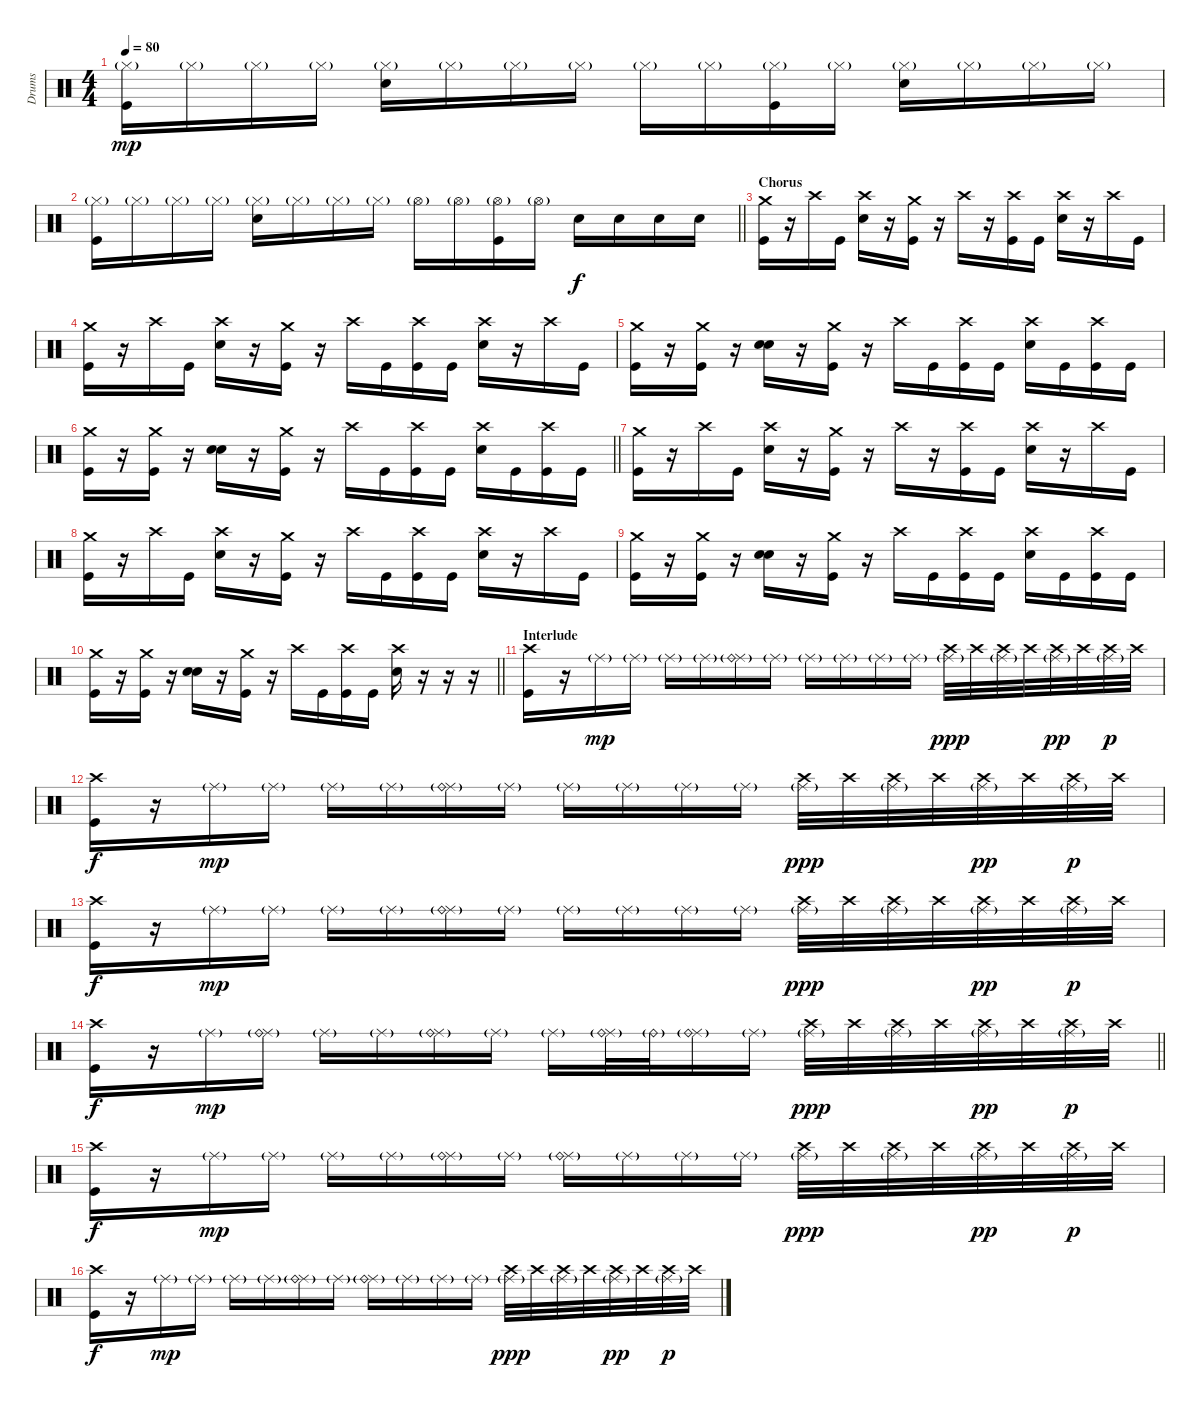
\track ("Drums" "Drums") {instrument percussion}
\staff {score}
\articulation defaults
\ts (4 4)
\tempo 80
\clef neutral
\ks c
("Hi-Hat (closed)"{g} "Kick (hit)").16{dy mp} "Hi-Hat (closed)"{g}.16 "Hi-Hat (closed)"{g}.16 "Hi-Hat (closed)"{g}.16 ("Hi-Hat (closed)"{g} "Snare (hit) 2").16 "Hi-Hat (closed)"{g}.16 "Hi-Hat (closed)"{g}.16 "Hi-Hat (closed)"{g}.16 "Hi-Hat (closed)"{g}.16 "Hi-Hat (closed)"{g}.16 ("Hi-Hat (closed)"{g} "Kick (hit)").16 "Hi-Hat (closed)"{g}.16 ("Hi-Hat (closed)"{g} "Snare (hit) 2").16 "Hi-Hat (closed)"{g}.16 "Hi-Hat (closed)"{g}.16 "Hi-Hat (closed)"{g}.16 |
\barLineRight lightlight
("Hi-Hat (closed)"{g} "Kick (hit)").16 "Hi-Hat (closed)"{g}.16 "Hi-Hat (closed)"{g}.16 "Hi-Hat (closed)"{g}.16 ("Hi-Hat (closed)"{g} "Snare (hit) 2").16 "Hi-Hat (closed)"{g}.16 "Hi-Hat (closed)"{g}.16 "Hi-Hat (closed)"{g}.16 "Hi-Hat (open)"{g}.16 "Hi-Hat (open)"{g}.16 ("Hi-Hat (open)"{g} "Kick (hit)").16 "Hi-Hat (open)"{g}.16 "Snare (hit) 2".16{dy f} "Snare (hit) 2".16 "Snare (hit) 2".16 "Snare (hit) 2".16 |
\section ("" "Chorus")
("Crash medium (hit)" "Kick (hit)").16 r.16 "Crash high (hit)".16 "Kick (hit)".16 ("Crash high (hit)" "Snare (hit) 2").16 r.16 ("Crash medium (hit)" "Kick (hit)").16 r.16 "Crash high (hit)".16 r.16 ("Crash high (hit)" "Kick (hit)").16 "Kick (hit)".16 ("Crash high (hit)" "Snare (hit) 2").16 r.16 "Crash high (hit)".16 "Kick (hit)".16 |
("Crash medium (hit)" "Kick (hit)").16 r.16 "Crash high (hit)".16 "Kick (hit)".16 ("Crash high (hit)" "Snare (hit) 2").16 r.16 ("Crash medium (hit)" "Kick (hit)").16 r.16 "Crash high (hit)".16 "Kick (hit)".16 ("Crash high (hit)" "Kick (hit)").16 "Kick (hit)".16 ("Crash high (hit)" "Snare (hit) 2").16 r.16 "Crash high (hit)".16 "Kick (hit)".16 |
("Crash medium (hit)" "Kick (hit)").16 r.16 ("Crash medium (hit)" "Kick (hit)").16 r.16 ("Snare (hit) 2" "Snare (hit) 2").16 r.16 ("Crash medium (hit)" "Kick (hit)").16 r.16 "Crash high (hit)".16 "Kick (hit)".16 ("Crash high (hit)" "Kick (hit)").16 "Kick (hit)".16 ("Crash high (hit)" "Snare (hit) 2").16 "Kick (hit)".16 ("Crash high (hit)" "Kick (hit)").16 "Kick (hit)".16 |
\barLineRight lightlight
("Crash medium (hit)" "Kick (hit)").16 r.16 ("Crash medium (hit)" "Kick (hit)").16 r.16 ("Snare (hit) 2" "Snare (hit) 2").16 r.16 ("Crash medium (hit)" "Kick (hit)").16 r.16 "Crash high (hit)".16 "Kick (hit)".16 ("Crash high (hit)" "Kick (hit)").16 "Kick (hit)".16 ("Crash high (hit)" "Snare (hit) 2").16 "Kick (hit)".16 ("Crash high (hit)" "Kick (hit)").16 "Kick (hit)".16 |
("Crash medium (hit)" "Kick (hit)").16 r.16 "Crash high (hit)".16 "Kick (hit)".16 ("Crash high (hit)" "Snare (hit) 2").16 r.16 ("Crash medium (hit)" "Kick (hit)").16 r.16 "Crash high (hit)".16 r.16 ("Crash high (hit)" "Kick (hit)").16 "Kick (hit)".16 ("Crash high (hit)" "Snare (hit) 2").16 r.16 "Crash high (hit)".16 "Kick (hit)".16 |
("Crash medium (hit)" "Kick (hit)").16 r.16 "Crash high (hit)".16 "Kick (hit)".16 ("Crash high (hit)" "Snare (hit) 2").16 r.16 ("Crash medium (hit)" "Kick (hit)").16 r.16 "Crash high (hit)".16 "Kick (hit)".16 ("Crash high (hit)" "Kick (hit)").16 "Kick (hit)".16 ("Crash high (hit)" "Snare (hit) 2").16 r.16 "Crash high (hit)".16 "Kick (hit)".16 |
("Crash medium (hit)" "Kick (hit)").16 r.16 ("Crash medium (hit)" "Kick (hit)").16 r.16 ("Snare (hit) 2" "Snare (hit) 2").16 r.16 ("Crash medium (hit)" "Kick (hit)").16 r.16 "Crash high (hit)".16 "Kick (hit)".16 ("Crash high (hit)" "Kick (hit)").16 "Kick (hit)".16 ("Crash high (hit)" "Snare (hit) 2").16 "Kick (hit)".16 ("Crash high (hit)" "Kick (hit)").16 "Kick (hit)".16 |
\barLineRight lightlight
("Crash medium (hit)" "Kick (hit)").16 r.16 ("Crash medium (hit)" "Kick (hit)").16 r.16 ("Snare (hit) 2" "Snare (hit) 2").16 r.16 ("Crash medium (hit)" "Kick (hit)").16 r.16 "Crash high (hit)".16 "Kick (hit)".16 ("Crash high (hit)" "Kick (hit)").16 "Kick (hit)".16 ("Crash high (hit)" "Snare (hit) 2").16 r.16 r.16 r.16 |
\section ("" "Interlude")
("Crash high (hit)" "Kick (hit)").16 r.16 "Ride (middle)"{g}.16{dy mp} "Ride (middle)"{g}.16 "Ride (middle)"{g}.16 "Ride (middle)"{g}.16 ("Ride (middle)"{g} "Ride (bell)"{g}).16 "Ride (middle)"{g}.16 "Ride (middle)"{g}.16 "Ride (middle)"{g}.16 "Ride (middle)"{g}.16 "Ride (middle)"{g}.16 ("Ride (middle)"{g} "Crash high (hit)").32{dy ppp} "Crash high (hit)".32 ("Ride (middle)"{g} "Crash high (hit)").32 "Crash high (hit)".32 ("Ride (middle)"{g} "Crash high (hit)").32{dy pp} "Crash high (hit)".32 ("Ride (middle)"{g} "Crash high (hit)").32{dy p} "Crash high (hit)".32 |
("Crash high (hit)" "Kick (hit)").16{dy f} r.16 "Ride (middle)"{g}.16{dy mp} "Ride (middle)"{g}.16 "Ride (middle)"{g}.16 "Ride (middle)"{g}.16 ("Ride (middle)"{g} "Ride (bell)"{g}).16 "Ride (middle)"{g}.16 "Ride (middle)"{g}.16 "Ride (middle)"{g}.16 "Ride (middle)"{g}.16 "Ride (middle)"{g}.16 ("Ride (middle)"{g} "Crash high (hit)").32{dy ppp} "Crash high (hit)".32 ("Ride (middle)"{g} "Crash high (hit)").32 "Crash high (hit)".32 ("Ride (middle)"{g} "Crash high (hit)").32{dy pp} "Crash high (hit)".32 ("Ride (middle)"{g} "Crash high (hit)").32{dy p} "Crash high (hit)".32 |
("Crash high (hit)" "Kick (hit)").16{dy f} r.16 "Ride (middle)"{g}.16{dy mp} "Ride (middle)"{g}.16 "Ride (middle)"{g}.16 "Ride (middle)"{g}.16 ("Ride (middle)"{g} "Ride (bell)"{g}).16 "Ride (middle)"{g}.16 "Ride (middle)"{g}.16 "Ride (middle)"{g}.16 "Ride (middle)"{g}.16 "Ride (middle)"{g}.16 ("Ride (middle)"{g} "Crash high (hit)").32{dy ppp} "Crash high (hit)".32 ("Ride (middle)"{g} "Crash high (hit)").32 "Crash high (hit)".32 ("Ride (middle)"{g} "Crash high (hit)").32{dy pp} "Crash high (hit)".32 ("Ride (middle)"{g} "Crash high (hit)").32{dy p} "Crash high (hit)".32 |
\barLineRight lightlight
("Crash high (hit)" "Kick (hit)").16{dy f} r.16 "Ride (middle)"{g}.16{dy mp} ("Ride (middle)"{g} "Ride (bell)"{g}).16 "Ride (middle)"{g}.16 "Ride (middle)"{g}.16 ("Ride (middle)"{g} "Ride (bell)"{g}).16 "Ride (middle)"{g}.16 "Ride (middle)"{g}.16 ("Ride (middle)"{g} "Ride (bell)"{g}).32 "Ride (bell)"{g}.32 ("Ride (middle)"{g} "Ride (bell)"{g}).16 "Ride (middle)"{g}.16 ("Ride (middle)"{g} "Crash high (hit)").32{dy ppp} "Crash high (hit)".32 ("Ride (middle)"{g} "Crash high (hit)").32 "Crash high (hit)".32 ("Ride (middle)"{g} "Crash high (hit)").32{dy pp} "Crash high (hit)".32 ("Ride (middle)"{g} "Crash high (hit)").32{dy p} "Crash high (hit)".32 |
("Crash high (hit)" "Kick (hit)").16{dy f} r.16 "Ride (middle)"{g}.16{dy mp} "Ride (middle)"{g}.16 "Ride (middle)"{g}.16 "Ride (middle)"{g}.16 ("Ride (middle)"{g} "Ride (bell)"{g}).16 "Ride (middle)"{g}.16 ("Ride (middle)"{g} "Ride (bell)"{g}).16 "Ride (middle)"{g}.16 "Ride (middle)"{g}.16 "Ride (middle)"{g}.16 ("Ride (middle)"{g} "Crash high (hit)").32{dy ppp} "Crash high (hit)".32 ("Ride (middle)"{g} "Crash high (hit)").32 "Crash high (hit)".32 ("Ride (middle)"{g} "Crash high (hit)").32{dy pp} "Crash high (hit)".32 ("Ride (middle)"{g} "Crash high (hit)").32{dy p} "Crash high (hit)".32 |
("Crash high (hit)" "Kick (hit)").16{dy f} r.16 "Ride (middle)"{g}.16{dy mp} "Ride (middle)"{g}.16 "Ride (middle)"{g}.16 "Ride (middle)"{g}.16 ("Ride (middle)"{g} "Ride (bell)"{g}).16 "Ride (middle)"{g}.16 ("Ride (middle)"{g} "Ride (bell)"{g}).16 "Ride (middle)"{g}.16 "Ride (middle)"{g}.16 "Ride (middle)"{g}.16 ("Ride (middle)"{g} "Crash high (hit)").32{dy ppp} "Crash high (hit)".32 ("Ride (middle)"{g} "Crash high (hit)").32 "Crash high (hit)".32 ("Ride (middle)"{g} "Crash high (hit)").32{dy pp} "Crash high (hit)".32 ("Ride (middle)"{g} "Crash high (hit)").32{dy p} "Crash high (hit)".32
